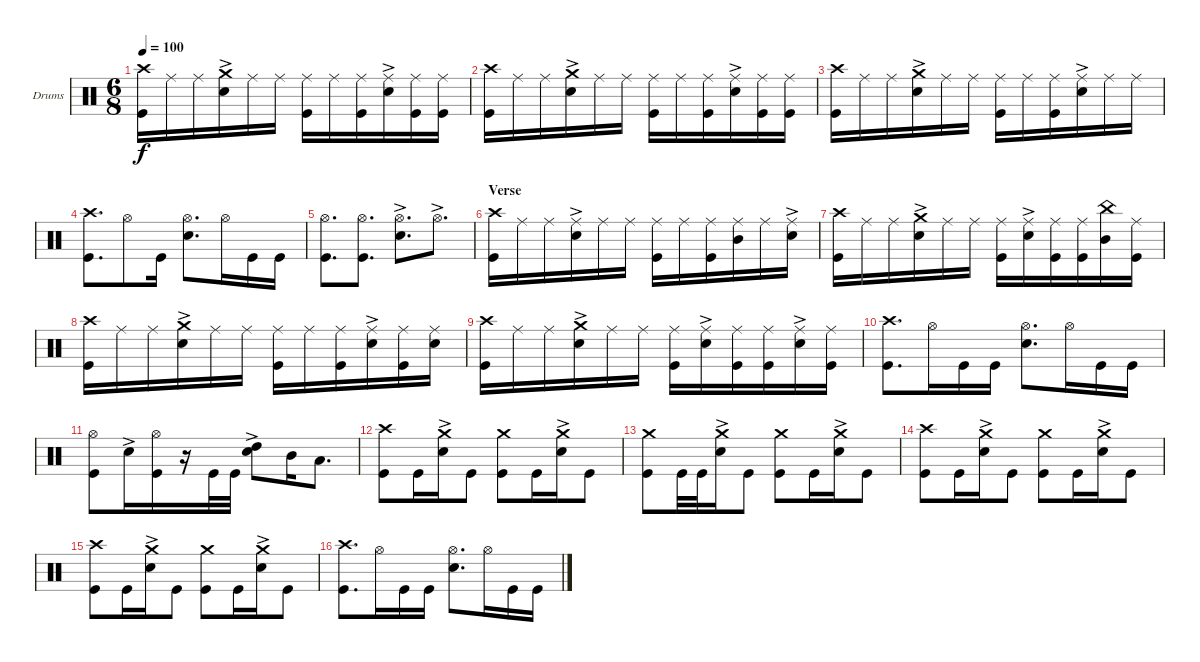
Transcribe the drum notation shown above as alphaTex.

\bracketExtendMode groupsimilarinstruments
\firstSystemTrackNameOrientation horizontal
\otherSystemsTrackNameOrientation horizontal
\track ("Drumkit" "Drums") {instrument percussion}
\staff {score}
\articulation defaults
\ts (6 8)
\tempo 100
\clef neutral
\ks c
("Crash high (hit)" "Kick (hit)").16{dy f} "Ride (middle)".16 "Ride (middle)".16 ("Snare (hit) 2"{ac} "Crash medium (hit)").16 "Ride (middle)".16 "Ride (middle)".16 ("Ride (middle)" "Kick (hit)").16 "Ride (middle)".16 ("Ride (middle)" "Kick (hit)").16 ("Ride (middle)" "Snare (hit) 2"{ac}).16 ("Ride (middle)" "Kick (hit)").16 ("Ride (middle)" "Kick (hit)").16 |
("Crash high (hit)" "Kick (hit)").16 "Ride (middle)".16 "Ride (middle)".16 ("Snare (hit) 2"{ac} "Crash medium (hit)").16 "Ride (middle)".16 "Ride (middle)".16 ("Ride (middle)" "Kick (hit)").16 "Ride (middle)".16 ("Ride (middle)" "Kick (hit)").16 ("Ride (middle)" "Snare (hit) 2"{ac}).16 ("Ride (middle)" "Kick (hit)").16 ("Ride (middle)" "Kick (hit)").16 |
("Crash high (hit)" "Kick (hit)").16 "Ride (middle)".16 "Ride (middle)".16 ("Snare (hit) 2"{ac} "Crash medium (hit)").16 "Ride (middle)".16 "Ride (middle)".16 ("Ride (middle)" "Kick (hit)").16 "Ride (middle)".16 ("Ride (middle)" "Kick (hit)").16 ("Ride (middle)" "Snare (hit) 2"{ac}).16 "Ride (middle)".16 "Ride (middle)".16 |
("Kick (hit)" "Crash high (hit)").8{d} "Hi-Hat (open)".8 "Kick (hit)".16 ("Snare (hit) 2" "Hi-Hat (open)").8{d} "Hi-Hat (open)".16 "Kick (hit)".16 "Kick (hit)".16 |
("Hi-Hat (open)" "Kick (hit)").8{d} ("Hi-Hat (open)" "Kick (hit)").8{d} ("Snare (hit) 2"{ac} "Hi-Hat (open)").8{d} "Hi-Hat (open)"{ac}.8{d} |
\section ("" "Verse")
("Crash high (hit)" "Kick (hit)").16 "Ride (middle)".16 "Ride (middle)".16 ("Ride (middle)" "Snare (hit) 2"{ac}).16 "Ride (middle)".16 "Ride (middle)".16 ("Ride (middle)" "Kick (hit)").16 "Ride (middle)".16 ("Ride (middle)" "Kick (hit)").16 ("Ride (middle)" "Mid Tom (hit)").16 "Ride (middle)".16 ("Ride (middle)" "Snare (hit) 2"{ac}).16 |
("Crash high (hit)" "Kick (hit)").16 "Ride (middle)".16 "Ride (middle)".16 ("Snare (hit) 2"{ac} "Crash medium (hit)").16 "Ride (middle)".16 "Ride (middle)".16 ("Ride (middle)" "Kick (hit)").16 ("Ride (middle)" "Snare (hit) 2"{ac}).16 ("Ride (middle)" "Kick (hit)").16 ("Ride (middle)" "Kick (hit)").16 ("Mid Tom (hit)" "China (hit)").16 ("Ride (middle)" "Kick (hit)").16 |
("Crash high (hit)" "Kick (hit)").16 "Ride (middle)".16 "Ride (middle)".16 ("Snare (hit) 2"{ac} "Crash medium (hit)").16 "Ride (middle)".16 "Ride (middle)".16 ("Ride (middle)" "Kick (hit)").16 "Ride (middle)".16 ("Ride (middle)" "Kick (hit)").16 ("Ride (middle)" "Snare (hit) 2"{ac}).16 ("Ride (middle)" "Kick (hit)").16 ("Ride (middle)" "Snare (hit) 2").16 |
("Crash high (hit)" "Kick (hit)").16 "Ride (middle)".16 "Ride (middle)".16 ("Snare (hit) 2"{ac} "Crash medium (hit)").16 "Ride (middle)".16 "Ride (middle)".16 ("Ride (middle)" "Kick (hit)").16 ("Ride (middle)" "Snare (hit) 2"{ac}).16 ("Ride (middle)" "Kick (hit)").16 ("Ride (middle)" "Kick (hit)").16 ("Ride (middle)" "Snare (hit) 2"{ac}).16 ("Ride (middle)" "Kick (hit)").16 |
("Kick (hit)" "Crash high (hit)").8{d} "Hi-Hat (open)".16 "Kick (hit)".16 "Kick (hit)".16 ("Snare (hit) 2" "Hi-Hat (open)").8{d} "Hi-Hat (open)".16 "Kick (hit)".16 "Kick (hit)".16 |
("Kick (hit)" "Hi-Hat (open)").8 "Snare (hit) 2"{ac}.16 ("Kick (hit)" "Hi-Hat (open)").16 r.16 "Kick (hit)".32 "Kick (hit)".32 ("Snare (hit) 2"{ac} "High Tom (hit)").8 "Mid Tom (hit)".16 "Low Tom (hit)".8{d} |
("Kick (hit)" "Crash high (hit)").8 "Kick (hit)".16 ("Snare (hit) 2"{ac} "Crash medium (hit)").16 "Kick (hit)".8 ("Kick (hit)" "Crash medium (hit)").8 "Kick (hit)".16 ("Snare (hit) 2"{ac} "Crash medium (hit)").16 "Kick (hit)".8 |
("Kick (hit)" "Crash medium (hit)").8 "Kick (hit)".32 "Kick (hit)".32 ("Snare (hit) 2"{ac} "Crash medium (hit)").16 "Kick (hit)".8 ("Kick (hit)" "Crash medium (hit)").8 "Kick (hit)".16 ("Snare (hit) 2"{ac} "Crash medium (hit)").16 "Kick (hit)".8 |
("Kick (hit)" "Crash high (hit)").8 "Kick (hit)".16 ("Snare (hit) 2"{ac} "Crash medium (hit)").16 "Kick (hit)".8 ("Kick (hit)" "Crash medium (hit)").8 "Kick (hit)".16 ("Snare (hit) 2"{ac} "Crash medium (hit)").16 "Kick (hit)".8 |
("Kick (hit)" "Crash high (hit)").8 "Kick (hit)".16 ("Snare (hit) 2"{ac} "Crash medium (hit)").16 "Kick (hit)".8 ("Kick (hit)" "Crash medium (hit)").8 "Kick (hit)".16 ("Snare (hit) 2"{ac} "Crash medium (hit)").16 "Kick (hit)".8 |
("Kick (hit)" "Crash high (hit)").8{d} "Hi-Hat (open)".16 "Kick (hit)".16 "Kick (hit)".16 ("Snare (hit) 2" "Hi-Hat (open)").8{d} "Hi-Hat (open)".16 "Kick (hit)".16 "Kick (hit)".16
